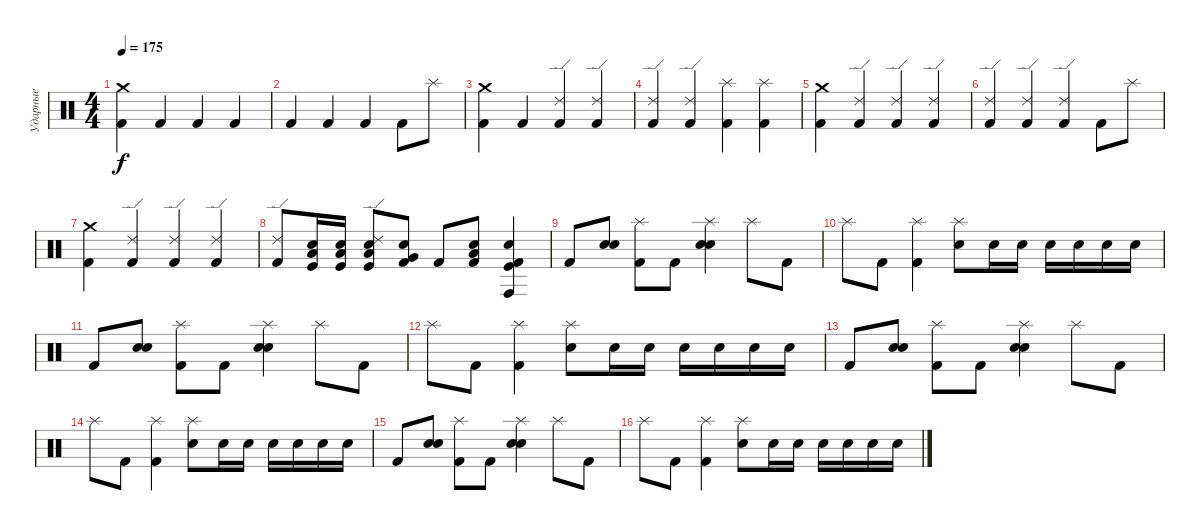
\track ("Ударные" "Ударные") {instrument percussion}
\staff {score}
\articulation defaults
\ts (4 4)
\tempo 175
\clef neutral
\ks c
("Crash medium (hit)" "Kick (hit) 2").4{dy f} "Kick (hit) 2".4 "Kick (hit) 2".4 "Kick (hit) 2".4 |
"Kick (hit) 2".4 "Kick (hit) 2".4 "Kick (hit) 2".4 "Kick (hit) 2".8 "Splash (hit)".8 |
("Crash medium (hit)" "Kick (hit) 2").4 "Kick (hit) 2".4 ("Ride (edge) 2" "Kick (hit) 2").4 ("Ride (edge) 2" "Kick (hit) 2").4 |
("Ride (edge) 2" "Kick (hit) 2").4 ("Ride (edge) 2" "Kick (hit) 2").4 ("Splash (hit)" "Kick (hit) 2").4 ("Splash (hit)" "Kick (hit) 2").4 |
("Crash medium (hit)" "Kick (hit) 2").4 ("Ride (edge) 2" "Kick (hit) 2").4 ("Ride (edge) 2" "Kick (hit) 2").4 ("Ride (edge) 2" "Kick (hit) 2").4 |
("Ride (edge) 2" "Kick (hit) 2").4 ("Ride (edge) 2" "Kick (hit) 2").4 ("Ride (edge) 2" "Kick (hit) 2").4 "Kick (hit) 2".8 "Splash (hit)".8 |
("Crash medium (hit)" "Kick (hit) 2").4 ("Ride (edge) 2" "Kick (hit) 2").4 ("Ride (edge) 2" "Kick (hit) 2").4 ("Ride (edge) 2" "Kick (hit) 2").4 |
("Ride (edge) 2" "Kick (hit) 2").8 ("Electric Snare (hit)" "Low Tom (hit)" "Kick (hit)").16 ("Electric Snare (hit)" "Low Tom (hit)" "Kick (hit)").16 ("Ride (edge) 2" "Electric Snare (hit)" "Low Tom (hit)" "Kick (hit)").8 ("Electric Snare (hit)" "Very Low Tom (hit)" "Kick (hit) 2").8 "Kick (hit) 2".8 ("Electric Snare (hit)" "Low Floor Tom (hit)" "Kick (hit) 2").8 ("Conga high (hit)" "Electric Snare (hit)" "Kick (hit)" "Kick (hit) 2").4 |
"Kick (hit) 2".8 ("Electric Snare (hit)" "Snare (hit) 2").8 ("Splash (hit)" "Kick (hit) 2").8 "Kick (hit) 2".8 ("Splash (hit)" "Electric Snare (hit)" "Snare (hit) 2").4 "Splash (hit)".8 "Kick (hit) 2".8 |
"Splash (hit)".8 "Kick (hit) 2".8 ("Splash (hit)" "Kick (hit) 2").4 ("Splash (hit)" "Electric Snare (hit)").8 "Electric Snare (hit)".16 "Electric Snare (hit)".16 "Electric Snare (hit)".16 "Electric Snare (hit)".16 "Electric Snare (hit)".16 "Electric Snare (hit)".16 |
"Kick (hit) 2".8 ("Electric Snare (hit)" "Snare (hit) 2").8 ("Splash (hit)" "Kick (hit) 2").8 "Kick (hit) 2".8 ("Splash (hit)" "Electric Snare (hit)" "Snare (hit) 2").4 "Splash (hit)".8 "Kick (hit) 2".8 |
"Splash (hit)".8 "Kick (hit) 2".8 ("Splash (hit)" "Kick (hit) 2").4 ("Splash (hit)" "Electric Snare (hit)").8 "Electric Snare (hit)".16 "Electric Snare (hit)".16 "Electric Snare (hit)".16 "Electric Snare (hit)".16 "Electric Snare (hit)".16 "Electric Snare (hit)".16 |
"Kick (hit) 2".8 ("Electric Snare (hit)" "Snare (hit) 2").8 ("Splash (hit)" "Kick (hit) 2").8 "Kick (hit) 2".8 ("Splash (hit)" "Electric Snare (hit)" "Snare (hit) 2").4 "Splash (hit)".8 "Kick (hit) 2".8 |
"Splash (hit)".8 "Kick (hit) 2".8 ("Splash (hit)" "Kick (hit) 2").4 ("Splash (hit)" "Electric Snare (hit)").8 "Electric Snare (hit)".16 "Electric Snare (hit)".16 "Electric Snare (hit)".16 "Electric Snare (hit)".16 "Electric Snare (hit)".16 "Electric Snare (hit)".16 |
"Kick (hit) 2".8 ("Electric Snare (hit)" "Snare (hit) 2").8 ("Splash (hit)" "Kick (hit) 2").8 "Kick (hit) 2".8 ("Splash (hit)" "Electric Snare (hit)" "Snare (hit) 2").4 "Splash (hit)".8 "Kick (hit) 2".8 |
"Splash (hit)".8 "Kick (hit) 2".8 ("Splash (hit)" "Kick (hit) 2").4 ("Splash (hit)" "Electric Snare (hit)").8 "Electric Snare (hit)".16 "Electric Snare (hit)".16 "Electric Snare (hit)".16 "Electric Snare (hit)".16 "Electric Snare (hit)".16 "Electric Snare (hit)".16
